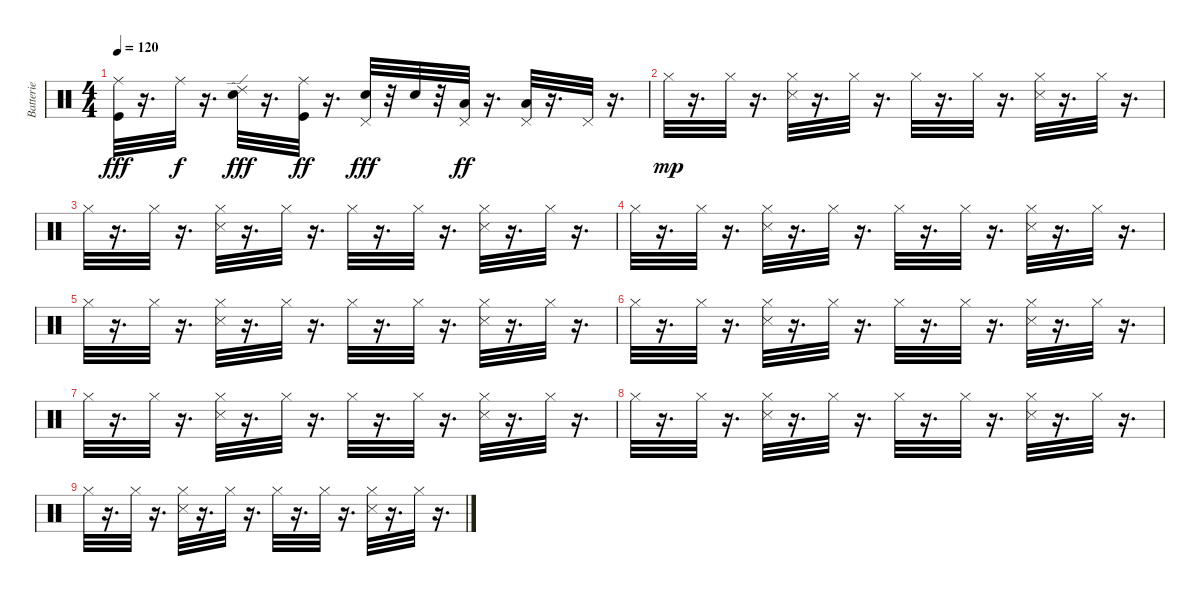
\track ("Batterie" "Batterie") {instrument percussion}
\staff {score}
\articulation defaults
\ts (4 4)
\tempo 120
\clef neutral
\ks c
("Ride (middle)" "Kick (hit)").32{dy fff} r.16{d} "Ride (middle)".32{dy f} r.16{d} ("Electric Snare (hit)" "Ride (edge) 2").32{dy fff} r.16{d} ("Ride (middle)" "Kick (hit)").32{dy ff} r.16{d} ("Electric Snare (hit)" "Pedal Hi-Hat (hit)").32{dy fff} r.32 "Electric Snare (hit)".32 r.32 ("Low Tom (hit)" "Pedal Hi-Hat (hit)").32{dy ff} r.16{d} ("Low Floor Tom (hit)" "Pedal Hi-Hat (hit)").32 r.16{d} "Pedal Hi-Hat (hit)".32 r.16{d} |
"Hi-Hat (closed)".32{dy mp} r.16{d} "Hi-Hat (closed)".32 r.16{d} ("Hi-Hat (closed)" "Snare (side stick) 3").32 r.16{d} "Hi-Hat (closed)".32 r.16{d} "Hi-Hat (closed)".32 r.16{d} "Hi-Hat (closed)".32 r.16{d} ("Hi-Hat (closed)" "Snare (side stick) 3").32 r.16{d} "Hi-Hat (closed)".32 r.16{d} |
"Hi-Hat (closed)".32 r.16{d} "Hi-Hat (closed)".32 r.16{d} ("Hi-Hat (closed)" "Snare (side stick) 3").32 r.16{d} "Hi-Hat (closed)".32 r.16{d} "Hi-Hat (closed)".32 r.16{d} "Hi-Hat (closed)".32 r.16{d} ("Snare (side stick) 3" "Hi-Hat (closed)").32 r.16{d} "Hi-Hat (closed)".32 r.16{d} |
"Hi-Hat (closed)".32 r.16{d} "Hi-Hat (closed)".32 r.16{d} ("Snare (side stick) 3" "Hi-Hat (closed)").32 r.16{d} "Hi-Hat (closed)".32 r.16{d} "Hi-Hat (closed)".32 r.16{d} "Hi-Hat (closed)".32 r.16{d} ("Hi-Hat (closed)" "Snare (side stick) 3").32 r.16{d} "Hi-Hat (closed)".32 r.16{d} |
"Hi-Hat (closed)".32 r.16{d} "Hi-Hat (closed)".32 r.16{d} ("Hi-Hat (closed)" "Snare (side stick) 3").32 r.16{d} "Hi-Hat (closed)".32 r.16{d} "Hi-Hat (closed)".32 r.16{d} "Hi-Hat (closed)".32 r.16{d} ("Hi-Hat (closed)" "Snare (side stick) 3").32 r.16{d} "Hi-Hat (closed)".32 r.16{d} |
"Hi-Hat (closed)".32 r.16{d} "Hi-Hat (closed)".32 r.16{d} ("Hi-Hat (closed)" "Snare (side stick) 3").32 r.16{d} "Hi-Hat (closed)".32 r.16{d} "Hi-Hat (closed)".32 r.16{d} "Hi-Hat (closed)".32 r.16{d} ("Hi-Hat (closed)" "Snare (side stick) 3").32 r.16{d} "Hi-Hat (closed)".32 r.16{d} |
"Hi-Hat (closed)".32 r.16{d} "Hi-Hat (closed)".32 r.16{d} ("Snare (side stick) 3" "Hi-Hat (closed)").32 r.16{d} "Hi-Hat (closed)".32 r.16{d} "Hi-Hat (closed)".32 r.16{d} "Hi-Hat (closed)".32 r.16{d} ("Snare (side stick) 3" "Hi-Hat (closed)").32 r.16{d} "Hi-Hat (closed)".32 r.16{d} |
"Hi-Hat (closed)".32 r.16{d} "Hi-Hat (closed)".32 r.16{d} ("Hi-Hat (closed)" "Snare (side stick) 3").32 r.16{d} "Hi-Hat (closed)".32 r.16{d} "Hi-Hat (closed)".32 r.16{d} "Hi-Hat (closed)".32 r.16{d} ("Snare (side stick) 3" "Hi-Hat (closed)").32 r.16{d} "Hi-Hat (closed)".32 r.16{d} |
"Hi-Hat (closed)".32 r.16{d} "Hi-Hat (closed)".32 r.16{d} ("Snare (side stick) 3" "Hi-Hat (closed)").32 r.16{d} "Hi-Hat (closed)".32 r.16{d} "Hi-Hat (closed)".32 r.16{d} "Hi-Hat (closed)".32 r.16{d} ("Hi-Hat (closed)" "Snare (side stick) 3").32 r.16{d} "Hi-Hat (closed)".32 r.16{d}
